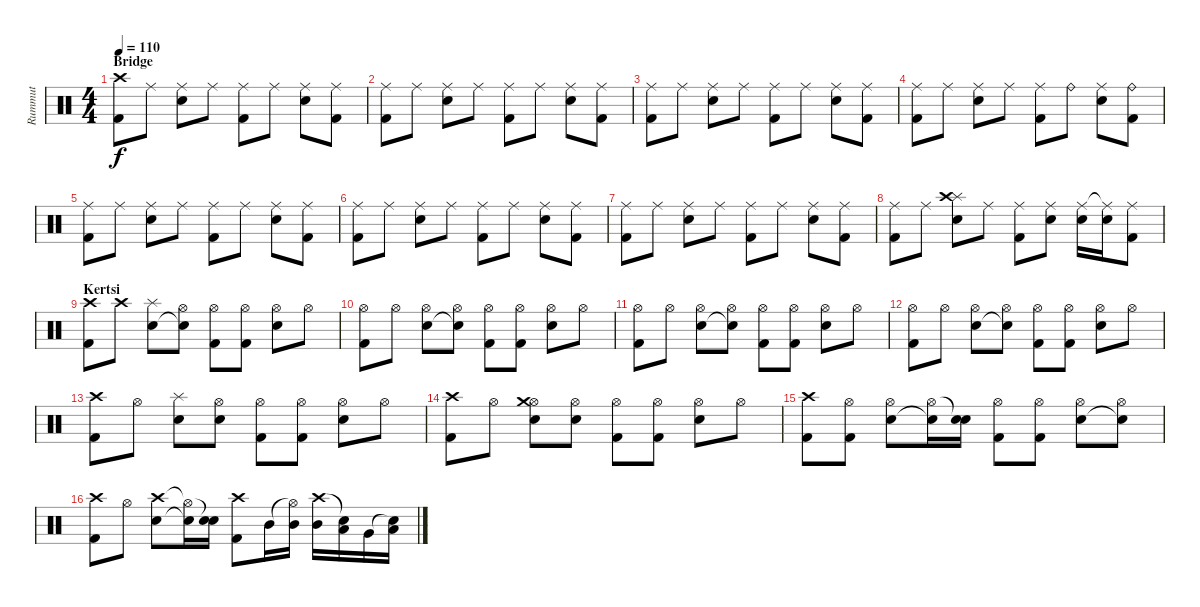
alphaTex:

\track ("Rummut" "Rummut") {instrument percussion}
\staff {score}
\articulation defaults
\ts (4 4)
\section ("" "Bridge")
\tempo 110
\clef neutral
\ks c
("Crash high (hit)" "Kick (hit) 2").8{dy f} "Ride (middle)".8 ("Ride (middle)" "Snare (hit) 2").8 "Ride (middle)".8 ("Ride (middle)" "Kick (hit) 2").8 "Ride (middle)".8 ("Ride (middle)" "Snare (hit) 2").8 ("Ride (middle)" "Kick (hit) 2").8 |
("Ride (middle)" "Kick (hit) 2").8 "Ride (middle)".8 ("Ride (middle)" "Snare (hit) 2").8 "Ride (middle)".8 ("Ride (middle)" "Kick (hit) 2").8 "Ride (middle)".8 ("Ride (middle)" "Snare (hit) 2").8 ("Ride (middle)" "Kick (hit) 2").8 |
("Ride (middle)" "Kick (hit) 2").8 "Ride (middle)".8 ("Ride (middle)" "Snare (hit) 2").8 "Ride (middle)".8 ("Ride (middle)" "Kick (hit) 2").8 "Ride (middle)".8 ("Ride (middle)" "Snare (hit) 2").8 ("Ride (middle)" "Kick (hit) 2").8 |
("Ride (middle)" "Kick (hit) 2").8 "Ride (middle)".8 ("Ride (middle)" "Snare (hit) 2").8 "Ride (middle)".8 ("Ride (middle)" "Kick (hit) 2").8 "Ride (bell)".8 ("Ride (middle)" "Snare (hit) 2").8 ("Ride (bell)" "Kick (hit) 2").8 |
("Ride (middle)" "Kick (hit) 2").8 "Ride (middle)".8 ("Ride (middle)" "Snare (hit) 2").8 "Ride (middle)".8 ("Ride (middle)" "Kick (hit) 2").8 "Ride (middle)".8 ("Ride (middle)" "Snare (hit) 2").8 ("Ride (middle)" "Kick (hit) 2").8 |
("Ride (middle)" "Kick (hit) 2").8 "Ride (middle)".8 ("Ride (middle)" "Snare (hit) 2").8 "Ride (middle)".8 ("Ride (middle)" "Kick (hit) 2").8 "Ride (middle)".8 ("Ride (middle)" "Snare (hit) 2").8 ("Ride (middle)" "Kick (hit) 2").8 |
("Ride (middle)" "Kick (hit) 2").8 "Ride (middle)".8 ("Ride (middle)" "Snare (hit) 2").8 "Ride (middle)".8 ("Ride (middle)" "Kick (hit) 2").8 "Ride (middle)".8 ("Ride (middle)" "Snare (hit) 2").8 ("Ride (middle)" "Kick (hit) 2").8 |
("Ride (middle)" "Kick (hit) 2").8 "Ride (middle)".8 ("Splash (hit)" "Crash high (hit)" "Snare (hit) 2").8 "Ride (middle)".8 ("Ride (middle)" "Kick (hit) 2").8 ("Ride (middle)" "Snare (hit) 2").8 ("Ride (middle)" "Snare (hit) 2").16 ("Ride (middle)"{t} "Snare (hit) 2").16 ("Ride (middle)" "Kick (hit) 2").8 |
\section ("" "Kertsi")
("Crash high (hit)" "Kick (hit) 2").8 "Crash high (hit)".8 ("Splash (hit)" "Snare (hit) 2").8 ("Hi-Hat (open)" "Snare (hit)"{t}).8 ("Hi-Hat (open)" "Kick (hit) 2").8 ("Hi-Hat (open)" "Kick (hit) 2").8 ("Hi-Hat (open)" "Snare (hit) 2").8 "Hi-Hat (open)".8 |
("Hi-Hat (open)" "Kick (hit) 2").8 "Hi-Hat (open)".8 ("Hi-Hat (open)" "Snare (hit) 2").8 ("Hi-Hat (open)" "Snare (hit)"{t}).8 ("Hi-Hat (open)" "Kick (hit) 2").8 ("Hi-Hat (open)" "Kick (hit) 2").8 ("Hi-Hat (open)" "Snare (hit) 2").8 "Hi-Hat (open)".8 |
("Hi-Hat (open)" "Kick (hit) 2").8 "Hi-Hat (open)".8 ("Hi-Hat (open)" "Snare (hit) 2").8 ("Hi-Hat (open)" "Snare (hit)"{t}).8 ("Hi-Hat (open)" "Kick (hit) 2").8 ("Hi-Hat (open)" "Kick (hit) 2").8 ("Hi-Hat (open)" "Snare (hit) 2").8 "Hi-Hat (open)".8 |
("Hi-Hat (open)" "Kick (hit) 2").8 "Hi-Hat (open)".8 ("Hi-Hat (open)" "Snare (hit) 2").8 ("Hi-Hat (open)" "Snare (hit)"{t}).8 ("Hi-Hat (open)" "Kick (hit) 2").8 ("Hi-Hat (open)" "Kick (hit) 2").8 ("Hi-Hat (open)" "Snare (hit) 2").8 "Hi-Hat (open)".8 |
("Crash high (hit)" "Kick (hit) 2").8 "Hi-Hat (open)".8 ("Splash (hit)" "Snare (hit) 2").8 ("Hi-Hat (open)" "Snare (hit) 2").8 ("Hi-Hat (open)" "Kick (hit) 2").8 ("Hi-Hat (open)" "Kick (hit) 2").8 ("Hi-Hat (open)" "Snare (hit) 2").8 "Hi-Hat (open)".8 |
("Crash high (hit)" "Kick (hit) 2").8 "Hi-Hat (open)".8 ("Hi-Hat (open)" "Crash medium (hit)" "Snare (hit) 2").8 ("Hi-Hat (open)" "Snare (hit) 2").8 ("Hi-Hat (open)" "Kick (hit) 2").8 ("Hi-Hat (open)" "Kick (hit) 2").8 ("Hi-Hat (open)" "Snare (hit) 2").8 "Hi-Hat (open)".8 |
("Crash high (hit)" "Kick (hit) 2").8 ("Hi-Hat (open)" "Kick (hit) 2").8 ("Hi-Hat (open)" "Snare (hit) 2").8 ("Hi-Hat (open)" "Snare (hit) 2"{t}).16 ("Snare (hit)"{t} "Snare (hit) 2").16 ("Hi-Hat (open)" "Kick (hit) 2").8 ("Hi-Hat (open)" "Kick (hit) 2").8 ("Hi-Hat (open)" "Snare (hit) 2").8 ("Hi-Hat (open)" "Snare (hit)"{t}).8 |
("Crash high (hit)" "Kick (hit) 2").8 "Hi-Hat (open)".8 ("Crash high (hit)" "Snare (hit) 2").8 ("Hi-Hat (open)"{t} "Snare (hit) 2"{t}).16 ("Snare (hit)"{t} "Snare (hit) 2").16 ("Crash high (hit)" "Kick (hit) 2").8 "Mid Tom (hit)".16 ("Hi-Hat (open)"{t} "Mid Tom (hit)").16 ("Crash high (hit)" "Mid Tom (hit)").16 ("Snare (hit)"{t} "Low Tom (hit)").16 "Very Low Tom (hit)".16 ("Snare (hit)"{t} "Low Floor Tom (hit)").16
